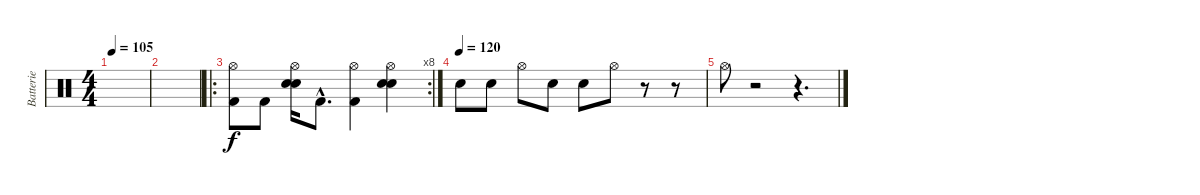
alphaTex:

\track ("Batterie" "Batterie") {instrument percussion}
\staff {score}
\articulation defaults
\ts (4 4)
\tempo 105
\clef neutral
\ks c
|
|
\ro
\rc 8
("Hi-Hat (open)" "Kick (hit) 2").8 "Kick (hit) 2".8 ("Hi-Hat (open)" "Snare (hit) 2" "Electric Snare (hit)").16 "Kick (hit) 2"{hac}.8{d} ("Hi-Hat (open)" "Kick (hit) 2").4 ("Hi-Hat (open)" "Snare (hit) 2" "Electric Snare (hit)").4 |
\tempo (120)
"Electric Snare (hit)".8 "Electric Snare (hit)".8 "Hi-Hat (open)".8 "Electric Snare (hit)".8 "Electric Snare (hit)".8 "Hi-Hat (open)".8 r.8 r.8 |
"Hi-Hat (open)"{tr (46 64)}.8 r.2 r.4{d}
